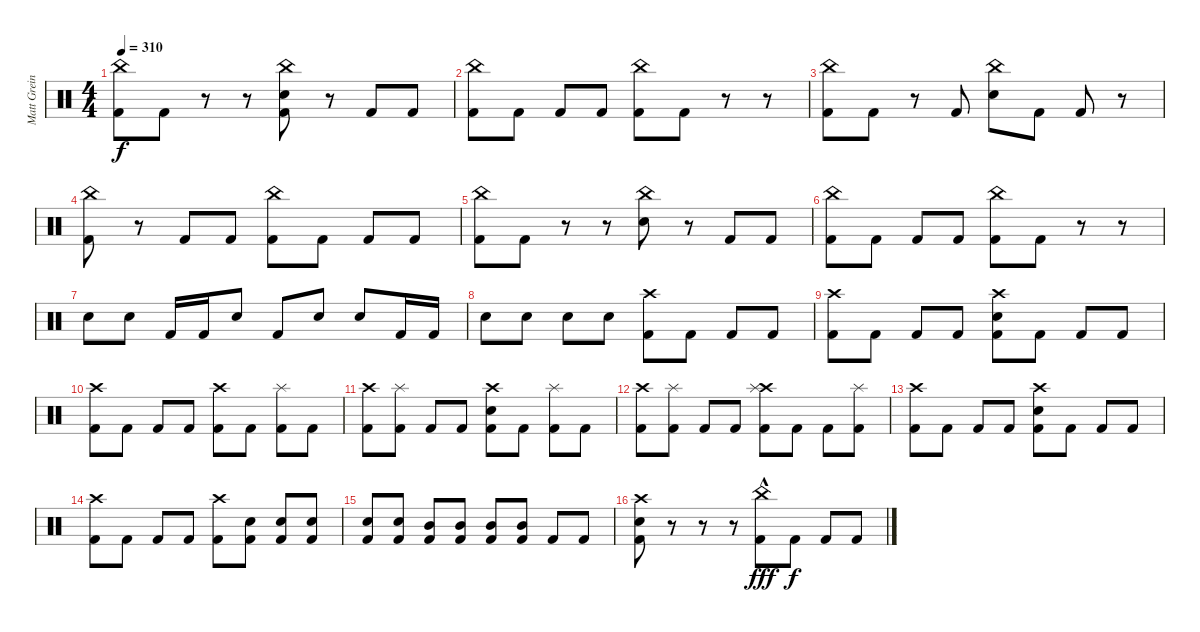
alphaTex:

\track ("Matt Greiner (Drums)" "Matt Grein") {instrument percussion}
\staff {score}
\articulation defaults
\ts (4 4)
\tempo 310
\clef neutral
\ks c
("China (hit)" "Kick (hit) 2").8{dy f} "Kick (hit) 2".8 r.8 r.8 ("China (hit)" "Electric Snare (hit)" "Kick (hit) 2").8 r.8 "Kick (hit) 2".8 "Kick (hit) 2".8 |
("China (hit)" "Kick (hit) 2").8 "Kick (hit) 2".8 "Kick (hit) 2".8 "Kick (hit) 2".8 ("China (hit)" "Kick (hit) 2").8 "Kick (hit) 2".8 r.8 r.8 |
("China (hit)" "Kick (hit) 2").8 "Kick (hit) 2".8 r.8 "Kick (hit) 2".8 ("China (hit)" "Electric Snare (hit)").8 "Kick (hit) 2".8 "Kick (hit) 2".8 r.8 |
("China (hit)" "Kick (hit) 2").8 r.8 "Kick (hit) 2".8 "Kick (hit) 2".8 ("China (hit)" "Kick (hit) 2").8 "Kick (hit) 2".8 "Kick (hit) 2".8 "Kick (hit) 2".8 |
("China (hit)" "Kick (hit) 2").8 "Kick (hit) 2".8 r.8 r.8 ("China (hit)" "Electric Snare (hit)").8 r.8 "Kick (hit) 2".8 "Kick (hit) 2".8 |
("China (hit)" "Kick (hit) 2").8 "Kick (hit) 2".8 "Kick (hit) 2".8 "Kick (hit) 2".8 ("China (hit)" "Kick (hit) 2").8 "Kick (hit) 2".8 r.8 r.8 |
"Electric Snare (hit)".8 "Electric Snare (hit)".8 "Kick (hit) 2".16 "Kick (hit) 2".16 "Electric Snare (hit)".8 "Kick (hit) 2".8 "Electric Snare (hit)".8 "Electric Snare (hit)".8 "Kick (hit) 2".16 "Kick (hit) 2".16 |
"Electric Snare (hit)".8 "Electric Snare (hit)".8 "Electric Snare (hit)".8 "Electric Snare (hit)".8 ("Crash high (hit)" "Kick (hit) 2").8 "Kick (hit) 2".8 "Kick (hit) 2".8 "Kick (hit) 2".8 |
("Crash high (hit)" "Kick (hit) 2").8 "Kick (hit) 2".8 "Kick (hit) 2".8 "Kick (hit) 2".8 ("Crash high (hit)" "Electric Snare (hit)" "Kick (hit) 2").8 "Kick (hit) 2".8 "Kick (hit) 2".8 "Kick (hit) 2".8 |
("Crash high (hit)" "Kick (hit) 2").8 "Kick (hit) 2".8 "Kick (hit) 2".8 "Kick (hit) 2".8 ("Crash high (hit)" "Kick (hit) 2").8 "Kick (hit) 2".8 ("Splash (hit)" "Kick (hit) 2").8 "Kick (hit) 2".8 |
("Crash high (hit)" "Kick (hit) 2").8 ("Splash (hit)" "Kick (hit) 2").8 "Kick (hit) 2".8 "Kick (hit) 2".8 ("Crash high (hit)" "Electric Snare (hit)" "Kick (hit) 2").8 "Kick (hit) 2".8 ("Splash (hit)" "Kick (hit) 2").8 "Kick (hit) 2".8 |
("Crash high (hit)" "Kick (hit) 2").8 ("Splash (hit)" "Kick (hit) 2").8 "Kick (hit) 2".8 "Kick (hit) 2".8 ("Crash high (hit)" "Splash (hit)" "Kick (hit) 2").8 "Kick (hit) 2".8 "Kick (hit) 2".8 ("Splash (hit)" "Kick (hit) 2").8 |
("Crash high (hit)" "Kick (hit) 2").8 "Kick (hit) 2".8 "Kick (hit) 2".8 "Kick (hit) 2".8 ("Crash high (hit)" "Electric Snare (hit)" "Kick (hit) 2").8 "Kick (hit) 2".8 "Kick (hit) 2".8 "Kick (hit) 2".8 |
("Crash high (hit)" "Kick (hit) 2").8 "Kick (hit) 2".8 "Kick (hit) 2".8 "Kick (hit) 2".8 ("Crash high (hit)" "Kick (hit) 2").8 ("Electric Snare (hit)" "Kick (hit) 2").8 ("Electric Snare (hit)" "Kick (hit) 2").8 ("Electric Snare (hit)" "Kick (hit) 2").8 |
("Electric Snare (hit)" "Kick (hit) 2").8 ("Electric Snare (hit)" "Kick (hit) 2").8 ("Mid Tom (hit)" "Kick (hit) 2").8 ("Mid Tom (hit)" "Kick (hit) 2").8 ("Mid Tom (hit)" "Kick (hit) 2").8 ("Mid Tom (hit)" "Kick (hit) 2").8 "Kick (hit) 2".8 "Kick (hit) 2".8 |
("Crash high (hit)" "Electric Snare (hit)" "Kick (hit) 2").8 r.8 r.8 r.8 ("China (hit)"{hac} "Kick (hit) 2").8{dy fff} "Kick (hit) 2".8{dy f} "Kick (hit) 2".8 "Kick (hit) 2".8
